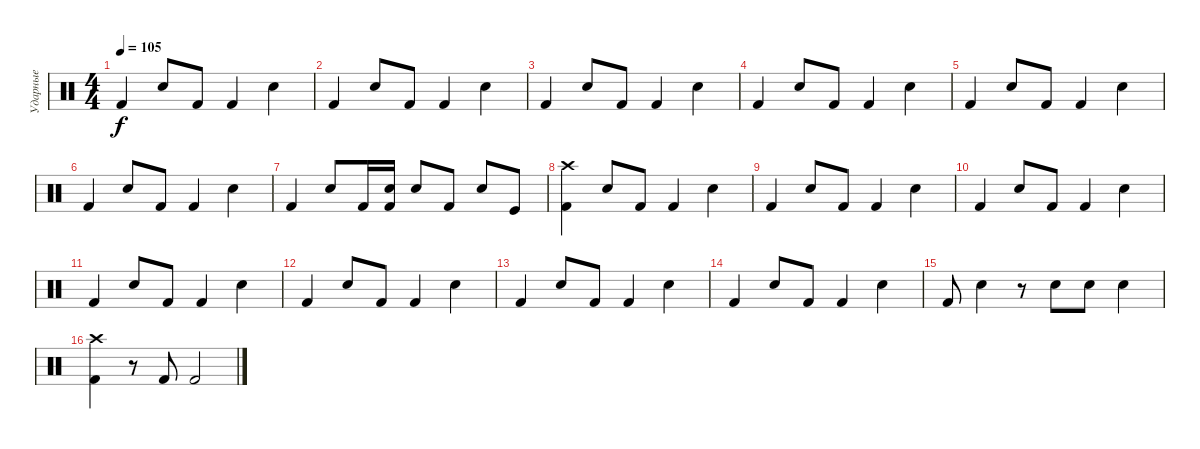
\track ("Ударные" "Ударные") {instrument percussion}
\staff {score}
\articulation defaults
\ts (4 4)
\tempo 105
\clef neutral
\ks c "Kick (hit) 2".4{dy f} "Snare (hit) 2".8 "Kick (hit) 2".8 "Kick (hit) 2".4 "Snare (hit) 2".4
|
"Kick (hit) 2".4 "Snare (hit) 2".8 "Kick (hit) 2".8 "Kick (hit) 2".4 "Snare (hit) 2".4 |
"Kick (hit) 2".4 "Snare (hit) 2".8 "Kick (hit) 2".8 "Kick (hit) 2".4 "Snare (hit) 2".4 |
"Kick (hit) 2".4 "Snare (hit) 2".8 "Kick (hit) 2".8 "Kick (hit) 2".4 "Snare (hit) 2".4 |
"Kick (hit) 2".4 "Snare (hit) 2".8 "Kick (hit) 2".8 "Kick (hit) 2".4 "Snare (hit) 2".4 |
"Kick (hit) 2".4 "Snare (hit) 2".8 "Kick (hit) 2".8 "Kick (hit) 2".4 "Snare (hit) 2".4 |
"Kick (hit) 2".4 "Snare (hit) 2".8 "Kick (hit) 2".16 ("Kick (hit) 2" "Snare (hit) 2").16 "Snare (hit) 2".8 "Kick (hit) 2".8 "Snare (hit) 2".8 "Kick (hit)".8 |
("Crash high (hit)" "Kick (hit) 2").4 "Snare (hit) 2".8 "Kick (hit) 2".8 "Kick (hit) 2".4 "Snare (hit) 2".4 |
"Kick (hit) 2".4 "Snare (hit) 2".8 "Kick (hit) 2".8 "Kick (hit) 2".4 "Snare (hit) 2".4 |
"Kick (hit) 2".4 "Snare (hit) 2".8 "Kick (hit) 2".8 "Kick (hit) 2".4 "Snare (hit) 2".4 |
"Kick (hit) 2".4 "Snare (hit) 2".8 "Kick (hit) 2".8 "Kick (hit) 2".4 "Snare (hit) 2".4 |
"Kick (hit) 2".4 "Snare (hit) 2".8 "Kick (hit) 2".8 "Kick (hit) 2".4 "Snare (hit) 2".4 |
"Kick (hit) 2".4 "Snare (hit) 2".8 "Kick (hit) 2".8 "Kick (hit) 2".4 "Snare (hit) 2".4 |
"Kick (hit) 2".4 "Snare (hit) 2".8 "Kick (hit) 2".8 "Kick (hit) 2".4 "Snare (hit) 2".4 |
"Kick (hit) 2".8 "Snare (hit) 2".4 r.8 "Snare (hit) 2".8 "Snare (hit) 2".8 "Snare (hit) 2".4 |
("Kick (hit) 2" "Crash high (hit)").4 r.8 "Kick (hit) 2".8 "Kick (hit) 2".2
